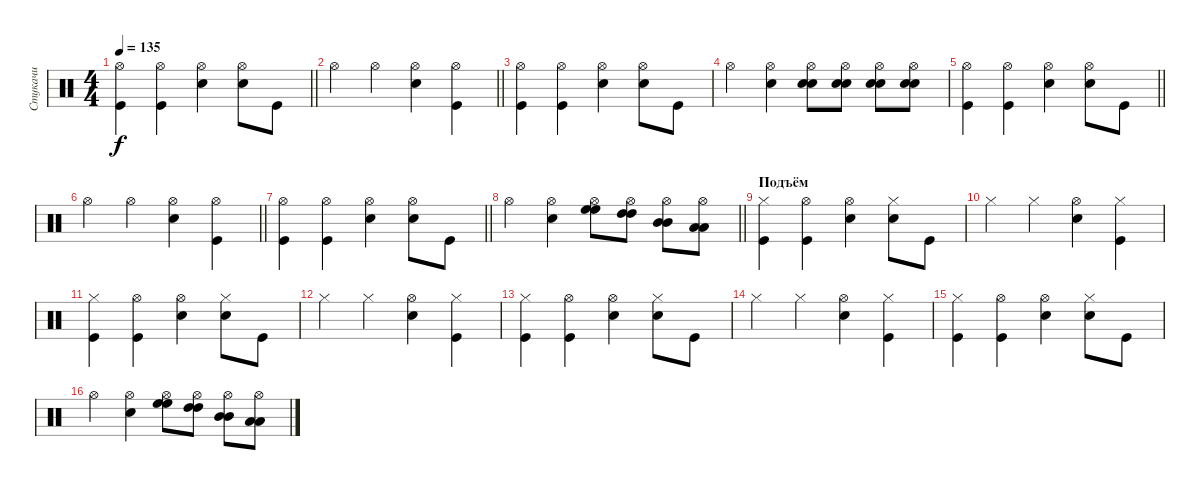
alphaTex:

\track ("Стукачи" "Стукачи") {instrument percussion}
\staff {score}
\articulation defaults
\ts (4 4)
\tempo 135
\clef neutral
\barLineRight lightlight
\ks c
("Hi-Hat (open)" "Kick (hit)").4{dy f} ("Hi-Hat (open)" "Kick (hit)").4 ("Hi-Hat (open)" "Snare (hit) 2").4 ("Hi-Hat (open)" "Snare (hit) 2").8 "Kick (hit)".8 |
\barLineRight lightlight "Hi-Hat (open)".4 "Hi-Hat (open)".4
("Hi-Hat (open)" "Snare (hit) 2").4 ("Hi-Hat (open)" "Kick (hit)").4 |
("Hi-Hat (open)" "Kick (hit)").4 ("Hi-Hat (open)" "Kick (hit)").4 ("Hi-Hat (open)" "Snare (hit) 2").4 ("Hi-Hat (open)" "Snare (hit) 2").8 "Kick (hit)".8 |
"Hi-Hat (open)".4 ("Hi-Hat (open)" "Snare (hit) 2").4 ("Hi-Hat (open)" "Snare (hit) 2" "Snare (hit) 2").8 ("Hi-Hat (open)" "Snare (hit) 2" "Snare (hit) 2").8 ("Hi-Hat (open)" "Snare (hit) 2" "Snare (hit) 2").8 ("Hi-Hat (open)" "Snare (hit) 2" "Snare (hit) 2").8 |
\barLineRight lightlight
("Hi-Hat (open)" "Kick (hit)").4 ("Hi-Hat (open)" "Kick (hit)").4 ("Hi-Hat (open)" "Snare (hit) 2").4 ("Hi-Hat (open)" "Snare (hit) 2").8 "Kick (hit)".8 |
\barLineRight lightlight "Hi-Hat (open)".4 "Hi-Hat (open)".4
("Hi-Hat (open)" "Snare (hit) 2").4 ("Hi-Hat (open)" "Kick (hit)").4 |
\barLineRight lightlight
("Hi-Hat (open)" "Kick (hit)").4 ("Hi-Hat (open)" "Kick (hit)").4 ("Hi-Hat (open)" "Snare (hit) 2").4 ("Hi-Hat (open)" "Snare (hit) 2").8 "Kick (hit)".8 |
\barLineRight lightlight "Hi-Hat (open)".4
("Hi-Hat (open)" "Snare (hit) 2").4 ("Hi-Hat (open)" "High Floor Tom (hit)" "High Floor Tom (hit)").8 ("Hi-Hat (open)" "High Tom (hit)" "High Tom (hit)").8 ("Hi-Hat (open)" "Mid Tom (hit)" "Mid Tom (hit)").8 ("Hi-Hat (open)" "Low Tom (hit)" "Low Tom (hit)").8 |
\section ("" "Подъём")
("Hi-Hat (closed)" "Kick (hit)").4 ("Hi-Hat (open)" "Kick (hit)").4 ("Hi-Hat (open)" "Snare (hit) 2").4 ("Hi-Hat (closed)" "Snare (hit) 2").8 "Kick (hit)".8 |
"Hi-Hat (closed)".4 "Hi-Hat (closed)".4 ("Hi-Hat (open)" "Snare (hit) 2").4 ("Hi-Hat (closed)" "Kick (hit)").4 |
("Hi-Hat (closed)" "Kick (hit)").4 ("Hi-Hat (open)" "Kick (hit)").4 ("Hi-Hat (open)" "Snare (hit) 2").4 ("Hi-Hat (closed)" "Snare (hit) 2").8 "Kick (hit)".8 |
"Hi-Hat (closed)".4 "Hi-Hat (closed)".4 ("Hi-Hat (open)" "Snare (hit) 2").4 ("Hi-Hat (closed)" "Kick (hit)").4 |
("Hi-Hat (closed)" "Kick (hit)").4 ("Hi-Hat (open)" "Kick (hit)").4 ("Hi-Hat (open)" "Snare (hit) 2").4 ("Hi-Hat (closed)" "Snare (hit) 2").8 "Kick (hit)".8 |
"Hi-Hat (closed)".4 "Hi-Hat (closed)".4 ("Hi-Hat (open)" "Snare (hit) 2").4 ("Hi-Hat (closed)" "Kick (hit)").4 |
("Hi-Hat (closed)" "Kick (hit)").4 ("Hi-Hat (open)" "Kick (hit)").4 ("Hi-Hat (open)" "Snare (hit) 2").4 ("Hi-Hat (closed)" "Snare (hit) 2").8 "Kick (hit)".8 |
"Hi-Hat (open)".4 ("Hi-Hat (open)" "Snare (hit) 2").4 ("Hi-Hat (open)" "High Floor Tom (hit)" "High Floor Tom (hit)").8 ("Hi-Hat (open)" "High Tom (hit)" "High Tom (hit)").8 ("Hi-Hat (open)" "Mid Tom (hit)" "Mid Tom (hit)").8 ("Hi-Hat (open)" "Low Tom (hit)" "Low Tom (hit)").8
